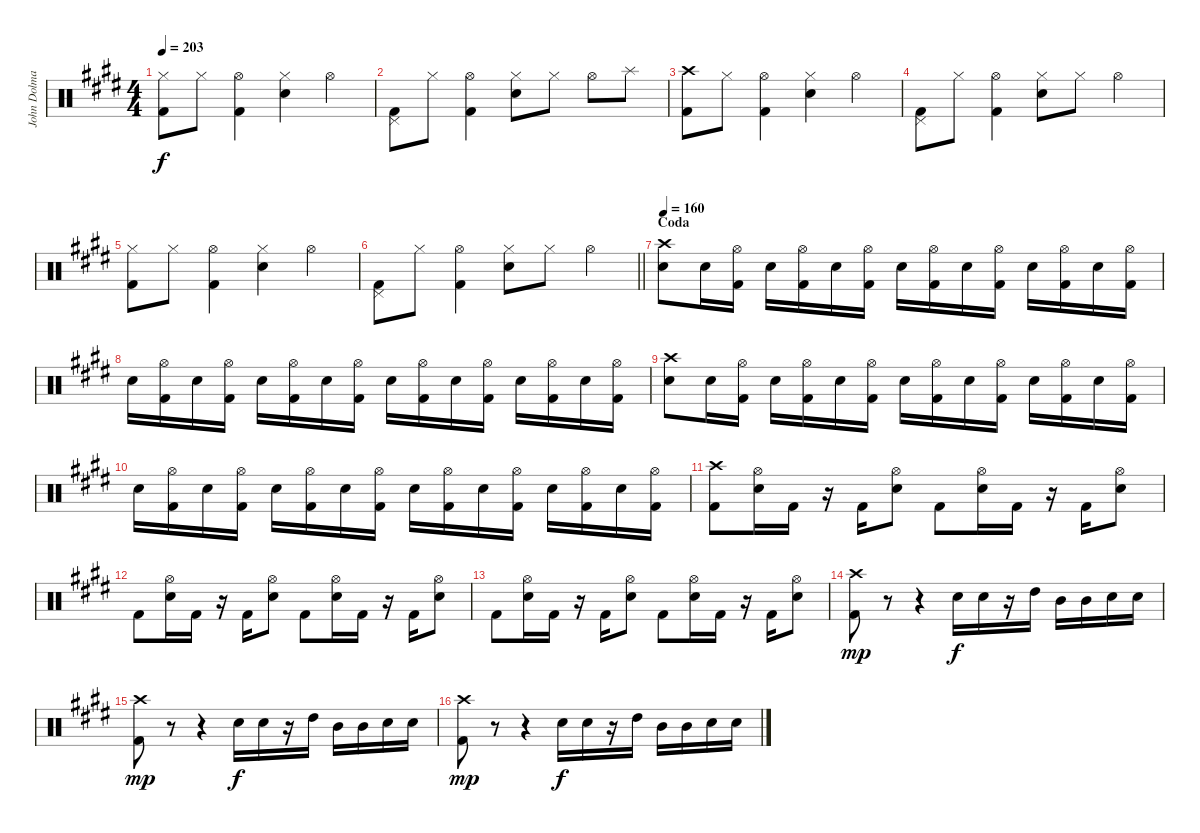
\track ("John Dolmayan [Drums]" "John Dolma") {instrument percussion}
\staff {score}
\articulation defaults
\ts (4 4)
\tempo 203
\clef neutral
\ks c#minor
("Hi-Hat (closed)" "Kick (hit) 2").8{dy f} "Hi-Hat (closed)".8 ("Hi-Hat (open)" "Kick (hit) 2").4 ("Hi-Hat (closed)" "Electric Snare (hit)").4 "Hi-Hat (open)".4 |
("Pedal Hi-Hat (hit)" "Kick (hit) 2").8 "Hi-Hat (closed)".8 ("Hi-Hat (open)" "Kick (hit) 2").4 ("Hi-Hat (closed)" "Electric Snare (hit)").8 "Hi-Hat (closed)".8 "Hi-Hat (open)".8 "Splash (hit)".8 |
("Crash high (hit)" "Kick (hit) 2").8 "Hi-Hat (closed)".8 ("Hi-Hat (open)" "Kick (hit) 2").4 ("Hi-Hat (closed)" "Electric Snare (hit)").4 "Hi-Hat (open)".4 |
("Pedal Hi-Hat (hit)" "Kick (hit) 2").8 "Hi-Hat (closed)".8 ("Hi-Hat (open)" "Kick (hit) 2").4 ("Hi-Hat (closed)" "Electric Snare (hit)").8 "Hi-Hat (closed)".8 "Hi-Hat (open)".4 |
("Hi-Hat (closed)" "Kick (hit) 2").8 "Hi-Hat (closed)".8 ("Hi-Hat (open)" "Kick (hit) 2").4 ("Hi-Hat (closed)" "Electric Snare (hit)").4 "Hi-Hat (open)".4 |
\barLineRight lightlight
("Pedal Hi-Hat (hit)" "Kick (hit) 2").8 "Hi-Hat (closed)".8 ("Hi-Hat (open)" "Kick (hit) 2").4 ("Hi-Hat (closed)" "Electric Snare (hit)").8 "Hi-Hat (closed)".8 "Hi-Hat (open)".4 |
\section ("" "Coda")
\tempo 160
("Crash high (hit)" "Electric Snare (hit)").8 "Electric Snare (hit)".16 ("Hi-Hat (open)" "Kick (hit) 2").16 "Electric Snare (hit)".16 ("Hi-Hat (open)" "Kick (hit) 2").16 "Electric Snare (hit)".16 ("Hi-Hat (open)" "Kick (hit) 2").16 "Electric Snare (hit)".16 ("Hi-Hat (open)" "Kick (hit) 2").16 "Electric Snare (hit)".16 ("Hi-Hat (open)" "Kick (hit) 2").16 "Electric Snare (hit)".16 ("Hi-Hat (open)" "Kick (hit) 2").16 "Electric Snare (hit)".16 ("Hi-Hat (open)" "Kick (hit) 2").16 |
"Electric Snare (hit)".16 ("Hi-Hat (open)" "Kick (hit) 2").16 "Electric Snare (hit)".16 ("Hi-Hat (open)" "Kick (hit) 2").16 "Electric Snare (hit)".16 ("Hi-Hat (open)" "Kick (hit) 2").16 "Electric Snare (hit)".16 ("Hi-Hat (open)" "Kick (hit) 2").16 "Electric Snare (hit)".16 ("Hi-Hat (open)" "Kick (hit) 2").16 "Electric Snare (hit)".16 ("Hi-Hat (open)" "Kick (hit) 2").16 "Electric Snare (hit)".16 ("Hi-Hat (open)" "Kick (hit) 2").16 "Electric Snare (hit)".16 ("Hi-Hat (open)" "Kick (hit) 2").16 |
("Crash high (hit)" "Electric Snare (hit)").8 "Electric Snare (hit)".16 ("Hi-Hat (open)" "Kick (hit) 2").16 "Electric Snare (hit)".16 ("Hi-Hat (open)" "Kick (hit) 2").16 "Electric Snare (hit)".16 ("Hi-Hat (open)" "Kick (hit) 2").16 "Electric Snare (hit)".16 ("Hi-Hat (open)" "Kick (hit) 2").16 "Electric Snare (hit)".16 ("Hi-Hat (open)" "Kick (hit) 2").16 "Electric Snare (hit)".16 ("Hi-Hat (open)" "Kick (hit) 2").16 "Electric Snare (hit)".16 ("Hi-Hat (open)" "Kick (hit) 2").16 |
"Electric Snare (hit)".16 ("Hi-Hat (open)" "Kick (hit) 2").16 "Electric Snare (hit)".16 ("Hi-Hat (open)" "Kick (hit) 2").16 "Electric Snare (hit)".16 ("Hi-Hat (open)" "Kick (hit) 2").16 "Electric Snare (hit)".16 ("Hi-Hat (open)" "Kick (hit) 2").16 "Electric Snare (hit)".16 ("Hi-Hat (open)" "Kick (hit) 2").16 "Electric Snare (hit)".16 ("Hi-Hat (open)" "Kick (hit) 2").16 "Electric Snare (hit)".16 ("Hi-Hat (open)" "Kick (hit) 2").16 "Electric Snare (hit)".16 ("Hi-Hat (open)" "Kick (hit) 2").16 |
("Crash high (hit)" "Kick (hit) 2").8 ("Hi-Hat (open)" "Electric Snare (hit)").16 "Kick (hit) 2".16 r.16 "Kick (hit) 2".16 ("Hi-Hat (open)" "Electric Snare (hit)").8 "Kick (hit) 2".8 ("Hi-Hat (open)" "Electric Snare (hit)").16 "Kick (hit) 2".16 r.16 "Kick (hit) 2".16 ("Hi-Hat (open)" "Electric Snare (hit)").8 |
"Kick (hit) 2".8 ("Hi-Hat (open)" "Electric Snare (hit)").16 "Kick (hit) 2".16 r.16 "Kick (hit) 2".16 ("Hi-Hat (open)" "Electric Snare (hit)").8 "Kick (hit) 2".8 ("Hi-Hat (open)" "Electric Snare (hit)").16 "Kick (hit) 2".16 r.16 "Kick (hit) 2".16 ("Hi-Hat (open)" "Electric Snare (hit)").8 |
"Kick (hit) 2".8 ("Hi-Hat (open)" "Electric Snare (hit)").16 "Kick (hit) 2".16 r.16 "Kick (hit) 2".16 ("Hi-Hat (open)" "Electric Snare (hit)").8 "Kick (hit) 2".8 ("Hi-Hat (open)" "Electric Snare (hit)").16 "Kick (hit) 2".16 r.16 "Kick (hit) 2".16 ("Hi-Hat (open)" "Electric Snare (hit)").8 |
("Crash high (hit)" "Kick (hit) 2").8{dy mp} r.8{volume 0} r.4 "Electric Snare (hit)".16{dy f volume 13} "Electric Snare (hit)".16 r.16 "High Tom (hit)".16 "Mid Tom (hit)".16 "Mid Tom (hit)".16 "Electric Snare (hit)".16 "Electric Snare (hit)".16 |
("Crash high (hit)" "Kick (hit) 2").8{dy mp} r.8{volume 0} r.4 "Electric Snare (hit)".16{dy f volume 13} "Electric Snare (hit)".16 r.16 "High Tom (hit)".16 "Mid Tom (hit)".16 "Mid Tom (hit)".16 "Electric Snare (hit)".16 "Electric Snare (hit)".16 |
("Crash high (hit)" "Kick (hit) 2").8{dy mp} r.8{volume 0} r.4 "Electric Snare (hit)".16{dy f volume 13} "Electric Snare (hit)".16 r.16 "High Tom (hit)".16 "Mid Tom (hit)".16 "Mid Tom (hit)".16 "Electric Snare (hit)".16 "Electric Snare (hit)".16
